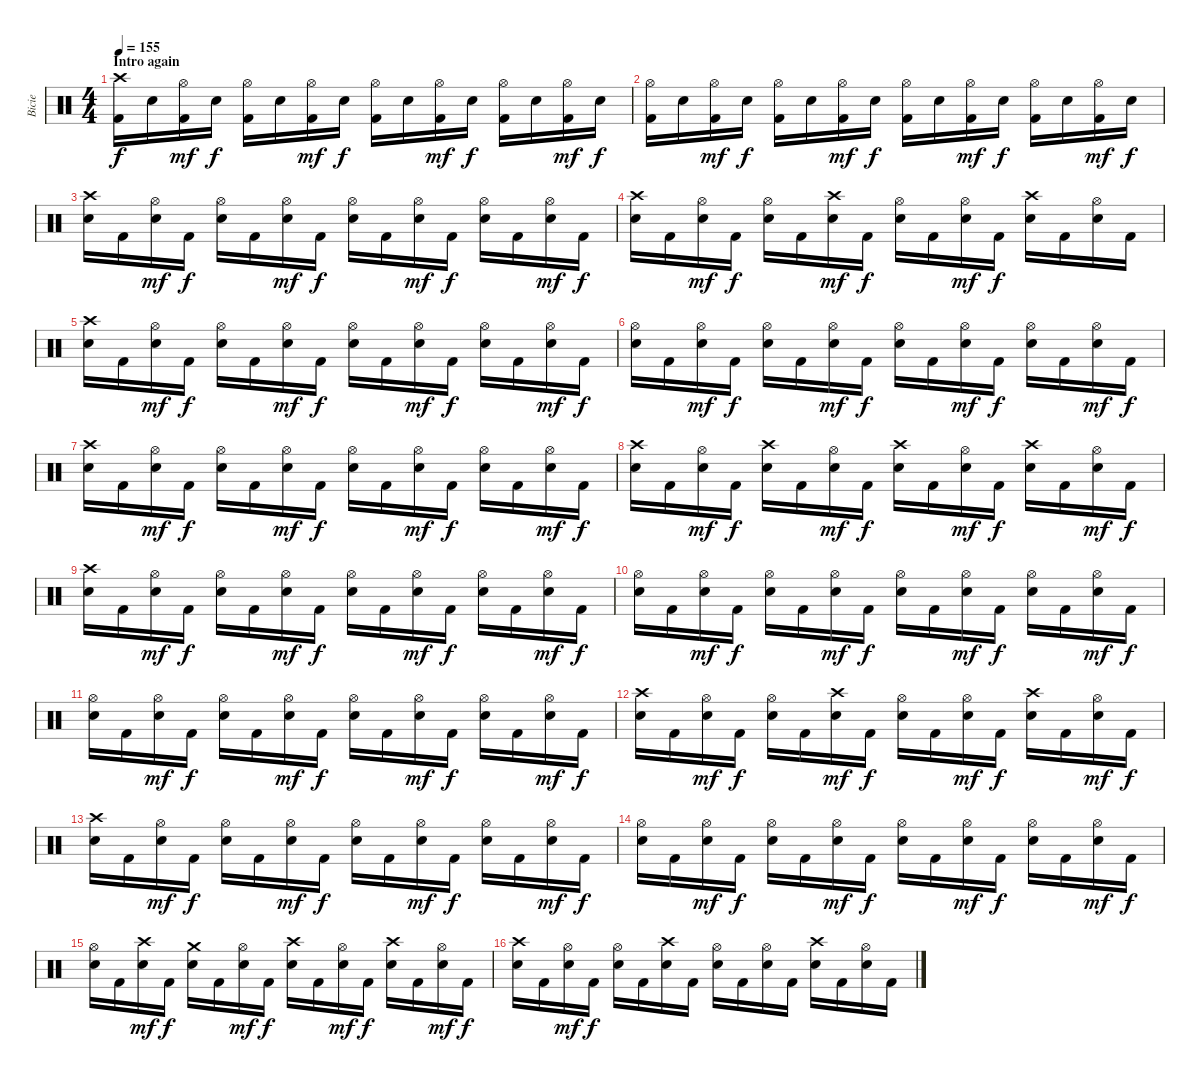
\track ("Bicie" "Bicie") {instrument percussion}
\staff {score}
\articulation defaults
\ts (4 4)
\section ("" "Intro again")
\tempo 155
\clef neutral
\ks c
("Crash high (hit)" "Kick (hit) 2").16{dy f} "Snare (hit) 2".16 ("Hi-Hat (open)" "Kick (hit) 2").16{dy mf} "Snare (hit) 2".16{dy f} ("Hi-Hat (open)" "Kick (hit) 2").16 "Snare (hit) 2".16 ("Hi-Hat (open)" "Kick (hit) 2").16{dy mf} "Snare (hit) 2".16{dy f} ("Hi-Hat (open)" "Kick (hit) 2").16 "Snare (hit) 2".16 ("Hi-Hat (open)" "Kick (hit) 2").16{dy mf} "Snare (hit) 2".16{dy f} ("Hi-Hat (open)" "Kick (hit) 2").16 "Snare (hit) 2".16 ("Hi-Hat (open)" "Kick (hit) 2").16{dy mf} "Snare (hit) 2".16{dy f} |
("Hi-Hat (open)" "Kick (hit) 2").16 "Snare (hit) 2".16 ("Hi-Hat (open)" "Kick (hit) 2").16{dy mf} "Snare (hit) 2".16{dy f} ("Hi-Hat (open)" "Kick (hit) 2").16 "Snare (hit) 2".16 ("Hi-Hat (open)" "Kick (hit) 2").16{dy mf} "Snare (hit) 2".16{dy f} ("Hi-Hat (open)" "Kick (hit) 2").16 "Snare (hit) 2".16 ("Hi-Hat (open)" "Kick (hit) 2").16{dy mf} "Snare (hit) 2".16{dy f} ("Hi-Hat (open)" "Kick (hit) 2").16 "Snare (hit) 2".16 ("Hi-Hat (open)" "Kick (hit) 2").16{dy mf} "Snare (hit) 2".16{dy f} |
("Crash high (hit)" "Snare (hit) 2").16 "Kick (hit) 2".16 ("Hi-Hat (open)" "Snare (hit) 2").16{dy mf} "Kick (hit) 2".16{dy f} ("Hi-Hat (open)" "Snare (hit) 2").16 "Kick (hit) 2".16 ("Hi-Hat (open)" "Snare (hit) 2").16{dy mf} "Kick (hit) 2".16{dy f} ("Hi-Hat (open)" "Snare (hit) 2").16 "Kick (hit) 2".16 ("Hi-Hat (open)" "Snare (hit) 2").16{dy mf} "Kick (hit) 2".16{dy f} ("Hi-Hat (open)" "Snare (hit) 2").16 "Kick (hit) 2".16 ("Hi-Hat (open)" "Snare (hit) 2").16{dy mf} "Kick (hit) 2".16{dy f} |
("Crash high (hit)" "Snare (hit) 2").16 "Kick (hit) 2".16 ("Hi-Hat (open)" "Snare (hit) 2").16{dy mf} "Kick (hit) 2".16{dy f} ("Hi-Hat (open)" "Snare (hit) 2").16 "Kick (hit) 2".16 ("Crash high (hit)" "Snare (hit) 2").16{dy mf} "Kick (hit) 2".16{dy f} ("Hi-Hat (open)" "Snare (hit) 2").16 "Kick (hit) 2".16 ("Hi-Hat (open)" "Snare (hit) 2").16{dy mf} "Kick (hit) 2".16{dy f} ("Crash high (hit)" "Snare (hit) 2").16 "Kick (hit) 2".16 ("Hi-Hat (open)" "Snare (hit) 2").16 "Kick (hit) 2".16 |
("Crash high (hit)" "Snare (hit) 2").16 "Kick (hit) 2".16 ("Hi-Hat (open)" "Snare (hit) 2").16{dy mf} "Kick (hit) 2".16{dy f} ("Hi-Hat (open)" "Snare (hit) 2").16 "Kick (hit) 2".16 ("Hi-Hat (open)" "Snare (hit) 2").16{dy mf} "Kick (hit) 2".16{dy f} ("Hi-Hat (open)" "Snare (hit) 2").16 "Kick (hit) 2".16 ("Hi-Hat (open)" "Snare (hit) 2").16{dy mf} "Kick (hit) 2".16{dy f} ("Hi-Hat (open)" "Snare (hit) 2").16 "Kick (hit) 2".16 ("Hi-Hat (open)" "Snare (hit) 2").16{dy mf} "Kick (hit) 2".16{dy f} |
("Hi-Hat (open)" "Snare (hit) 2").16 "Kick (hit) 2".16 ("Hi-Hat (open)" "Snare (hit) 2").16{dy mf} "Kick (hit) 2".16{dy f} ("Hi-Hat (open)" "Snare (hit) 2").16 "Kick (hit) 2".16 ("Hi-Hat (open)" "Snare (hit) 2").16{dy mf} "Kick (hit) 2".16{dy f} ("Hi-Hat (open)" "Snare (hit) 2").16 "Kick (hit) 2".16 ("Hi-Hat (open)" "Snare (hit) 2").16{dy mf} "Kick (hit) 2".16{dy f} ("Hi-Hat (open)" "Snare (hit) 2").16 "Kick (hit) 2".16 ("Hi-Hat (open)" "Snare (hit) 2").16{dy mf} "Kick (hit) 2".16{dy f} |
("Crash high (hit)" "Snare (hit) 2").16 "Kick (hit) 2".16 ("Hi-Hat (open)" "Snare (hit) 2").16{dy mf} "Kick (hit) 2".16{dy f} ("Hi-Hat (open)" "Snare (hit) 2").16 "Kick (hit) 2".16 ("Hi-Hat (open)" "Snare (hit) 2").16{dy mf} "Kick (hit) 2".16{dy f} ("Hi-Hat (open)" "Snare (hit) 2").16 "Kick (hit) 2".16 ("Hi-Hat (open)" "Snare (hit) 2").16{dy mf} "Kick (hit) 2".16{dy f} ("Hi-Hat (open)" "Snare (hit) 2").16 "Kick (hit) 2".16 ("Hi-Hat (open)" "Snare (hit) 2").16{dy mf} "Kick (hit) 2".16{dy f} |
("Crash high (hit)" "Snare (hit) 2").16 "Kick (hit) 2".16 ("Hi-Hat (open)" "Snare (hit) 2").16{dy mf} "Kick (hit) 2".16{dy f} ("Crash high (hit)" "Snare (hit) 2").16 "Kick (hit) 2".16 ("Hi-Hat (open)" "Snare (hit) 2").16{dy mf} "Kick (hit) 2".16{dy f} ("Crash high (hit)" "Snare (hit) 2").16 "Kick (hit) 2".16 ("Hi-Hat (open)" "Snare (hit) 2").16{dy mf} "Kick (hit) 2".16{dy f} ("Crash high (hit)" "Snare (hit) 2").16 "Kick (hit) 2".16 ("Hi-Hat (open)" "Snare (hit) 2").16{dy mf} "Kick (hit) 2".16{dy f} |
("Crash high (hit)" "Snare (hit) 2").16 "Kick (hit) 2".16 ("Hi-Hat (open)" "Snare (hit) 2").16{dy mf} "Kick (hit) 2".16{dy f} ("Hi-Hat (open)" "Snare (hit) 2").16 "Kick (hit) 2".16 ("Hi-Hat (open)" "Snare (hit) 2").16{dy mf} "Kick (hit) 2".16{dy f} ("Hi-Hat (open)" "Snare (hit) 2").16 "Kick (hit) 2".16 ("Hi-Hat (open)" "Snare (hit) 2").16{dy mf} "Kick (hit) 2".16{dy f} ("Hi-Hat (open)" "Snare (hit) 2").16 "Kick (hit) 2".16 ("Hi-Hat (open)" "Snare (hit) 2").16{dy mf} "Kick (hit) 2".16{dy f} |
("Hi-Hat (open)" "Snare (hit) 2").16 "Kick (hit) 2".16 ("Hi-Hat (open)" "Snare (hit) 2").16{dy mf} "Kick (hit) 2".16{dy f} ("Hi-Hat (open)" "Snare (hit) 2").16 "Kick (hit) 2".16 ("Hi-Hat (open)" "Snare (hit) 2").16{dy mf} "Kick (hit) 2".16{dy f} ("Hi-Hat (open)" "Snare (hit) 2").16 "Kick (hit) 2".16 ("Hi-Hat (open)" "Snare (hit) 2").16{dy mf} "Kick (hit) 2".16{dy f} ("Hi-Hat (open)" "Snare (hit) 2").16 "Kick (hit) 2".16 ("Hi-Hat (open)" "Snare (hit) 2").16{dy mf} "Kick (hit) 2".16{dy f} |
("Hi-Hat (open)" "Snare (hit) 2").16 "Kick (hit) 2".16 ("Hi-Hat (open)" "Snare (hit) 2").16{dy mf} "Kick (hit) 2".16{dy f} ("Hi-Hat (open)" "Snare (hit) 2").16 "Kick (hit) 2".16 ("Hi-Hat (open)" "Snare (hit) 2").16{dy mf} "Kick (hit) 2".16{dy f} ("Hi-Hat (open)" "Snare (hit) 2").16 "Kick (hit) 2".16 ("Hi-Hat (open)" "Snare (hit) 2").16{dy mf} "Kick (hit) 2".16{dy f} ("Hi-Hat (open)" "Snare (hit) 2").16 "Kick (hit) 2".16 ("Hi-Hat (open)" "Snare (hit) 2").16{dy mf} "Kick (hit) 2".16{dy f} |
("Crash high (hit)" "Snare (hit) 2").16 "Kick (hit) 2".16 ("Hi-Hat (open)" "Snare (hit) 2").16{dy mf} "Kick (hit) 2".16{dy f} ("Hi-Hat (open)" "Snare (hit) 2").16 "Kick (hit) 2".16 ("Crash high (hit)" "Snare (hit) 2").16{dy mf} "Kick (hit) 2".16{dy f} ("Hi-Hat (open)" "Snare (hit) 2").16 "Kick (hit) 2".16 ("Hi-Hat (open)" "Snare (hit) 2").16{dy mf} "Kick (hit) 2".16{dy f} ("Crash high (hit)" "Snare (hit) 2").16 "Kick (hit) 2".16 ("Hi-Hat (open)" "Snare (hit) 2").16{dy mf} "Kick (hit) 2".16{dy f} |
("Crash high (hit)" "Snare (hit) 2").16 "Kick (hit) 2".16 ("Hi-Hat (open)" "Snare (hit) 2").16{dy mf} "Kick (hit) 2".16{dy f} ("Hi-Hat (open)" "Snare (hit) 2").16 "Kick (hit) 2".16 ("Hi-Hat (open)" "Snare (hit) 2").16{dy mf} "Kick (hit) 2".16{dy f} ("Hi-Hat (open)" "Snare (hit) 2").16 "Kick (hit) 2".16 ("Hi-Hat (open)" "Snare (hit) 2").16{dy mf} "Kick (hit) 2".16{dy f} ("Hi-Hat (open)" "Snare (hit) 2").16 "Kick (hit) 2".16 ("Hi-Hat (open)" "Snare (hit) 2").16{dy mf} "Kick (hit) 2".16{dy f} |
("Hi-Hat (open)" "Snare (hit) 2").16 "Kick (hit) 2".16 ("Hi-Hat (open)" "Snare (hit) 2").16{dy mf} "Kick (hit) 2".16{dy f} ("Hi-Hat (open)" "Snare (hit) 2").16 "Kick (hit) 2".16 ("Hi-Hat (open)" "Snare (hit) 2").16{dy mf} "Kick (hit) 2".16{dy f} ("Hi-Hat (open)" "Snare (hit) 2").16 "Kick (hit) 2".16 ("Hi-Hat (open)" "Snare (hit) 2").16{dy mf} "Kick (hit) 2".16{dy f} ("Hi-Hat (open)" "Snare (hit) 2").16 "Kick (hit) 2".16 ("Hi-Hat (open)" "Snare (hit) 2").16{dy mf} "Kick (hit) 2".16{dy f} |
("Hi-Hat (open)" "Snare (hit) 2").16 "Kick (hit) 2".16 ("Crash high (hit)" "Snare (hit) 2").16{dy mf} "Kick (hit) 2".16{dy f} ("Crash medium (hit)" "Snare (hit) 2").16 "Kick (hit) 2".16 ("Hi-Hat (open)" "Snare (hit) 2").16{dy mf} "Kick (hit) 2".16{dy f} ("Crash high (hit)" "Snare (hit) 2").16 "Kick (hit) 2".16 ("Hi-Hat (open)" "Snare (hit) 2").16{dy mf} "Kick (hit) 2".16{dy f} ("Crash high (hit)" "Snare (hit) 2").16 "Kick (hit) 2".16 ("Hi-Hat (open)" "Snare (hit) 2").16{dy mf} "Kick (hit) 2".16{dy f} |
("Crash high (hit)" "Snare (hit) 2").16 "Kick (hit) 2".16 ("Hi-Hat (open)" "Snare (hit) 2").16{dy mf} "Kick (hit) 2".16{dy f} ("Hi-Hat (open)" "Snare (hit) 2").16 "Kick (hit) 2".16 ("Crash high (hit)" "Snare (hit) 2").16 "Kick (hit) 2".16 ("Hi-Hat (open)" "Snare (hit) 2").16 "Kick (hit) 2".16 ("Hi-Hat (open)" "Snare (hit) 2").16 "Kick (hit) 2".16 ("Crash high (hit)" "Snare (hit) 2").16 "Kick (hit) 2".16 ("Hi-Hat (open)" "Snare (hit) 2").16 "Kick (hit) 2".16
